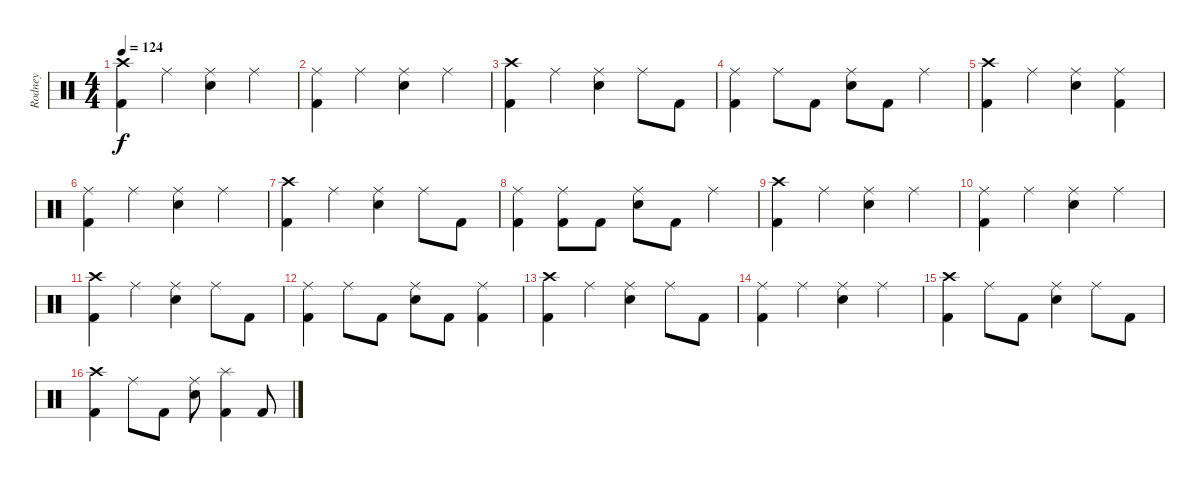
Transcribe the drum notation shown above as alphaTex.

\track ("Rodney" "Rodney") {instrument percussion}
\staff {score}
\articulation defaults
\ts (4 4)
\tempo 124
\clef neutral
\ks c
("Crash high (hit)" "Kick (hit) 2").4{dy f} "Ride (middle)".4 ("Ride (middle)" "Snare (hit) 2").4 "Ride (middle)".4 |
("Ride (middle)" "Kick (hit) 2").4 "Ride (middle)".4 ("Ride (middle)" "Snare (hit) 2").4 "Ride (middle)".4 |
("Crash high (hit)" "Kick (hit) 2").4 "Ride (middle)".4 ("Ride (middle)" "Snare (hit) 2").4 "Ride (middle)".8 "Kick (hit) 2".8 |
("Ride (middle)" "Kick (hit) 2").4 "Ride (middle)".8 "Kick (hit) 2".8 ("Ride (middle)" "Snare (hit) 2").8 "Kick (hit) 2".8 "Ride (middle)".4 |
("Crash high (hit)" "Kick (hit) 2").4 "Ride (middle)".4 ("Ride (middle)" "Snare (hit) 2").4 ("Ride (middle)" "Kick (hit) 2").4 |
("Ride (middle)" "Kick (hit) 2").4 "Ride (middle)".4 ("Ride (middle)" "Snare (hit) 2").4 "Ride (middle)".4 |
("Crash high (hit)" "Kick (hit) 2").4 "Ride (middle)".4 ("Ride (middle)" "Snare (hit) 2").4 "Ride (middle)".8 "Kick (hit) 2".8 |
("Ride (middle)" "Kick (hit) 2").4 ("Ride (middle)" "Kick (hit) 2").8 "Kick (hit) 2".8 ("Ride (middle)" "Snare (hit) 2").8 "Kick (hit) 2".8 "Ride (middle)".4 |
("Crash high (hit)" "Kick (hit) 2").4 "Ride (middle)".4 ("Ride (middle)" "Snare (hit) 2").4 "Ride (middle)".4 |
("Ride (middle)" "Kick (hit) 2").4 "Ride (middle)".4 ("Ride (middle)" "Snare (hit) 2").4 "Ride (middle)".4 |
("Crash high (hit)" "Kick (hit) 2").4 "Ride (middle)".4 ("Ride (middle)" "Snare (hit) 2").4 "Ride (middle)".8 "Kick (hit) 2".8 |
("Ride (middle)" "Kick (hit) 2").4 "Ride (middle)".8 "Kick (hit) 2".8 ("Ride (middle)" "Snare (hit) 2").8 "Kick (hit) 2".8 ("Ride (middle)" "Kick (hit) 2").4 |
("Crash high (hit)" "Kick (hit) 2").4 "Ride (middle)".4 ("Ride (middle)" "Snare (hit) 2").4 "Ride (middle)".8 "Kick (hit) 2".8 |
("Ride (middle)" "Kick (hit) 2").4 "Ride (middle)".4 ("Ride (middle)" "Snare (hit) 2").4 "Ride (middle)".4 |
("Crash high (hit)" "Kick (hit) 2").4 "Ride (middle)".8 "Kick (hit) 2".8 ("Ride (middle)" "Snare (hit) 2").4 "Ride (middle)".8 "Kick (hit) 2".8 |
("Crash high (hit)" "Kick (hit) 2").4 "Ride (middle)".8 "Kick (hit) 2".8 ("Ride (middle)" "Snare (hit) 2").8 ("Splash (hit)" "Kick (hit) 2").4 "Kick (hit) 2".8
